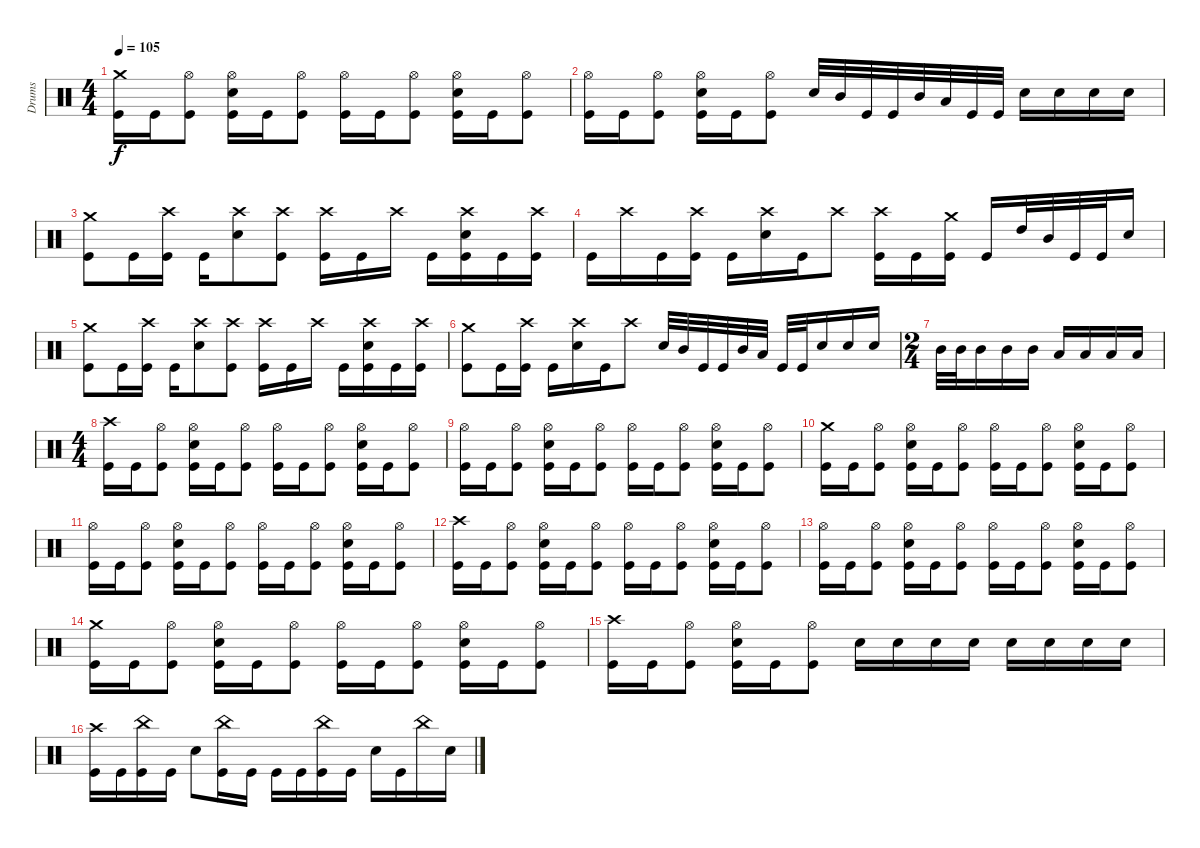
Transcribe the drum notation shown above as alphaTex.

\track ("Drums" "Drums") {instrument percussion}
\staff {score}
\articulation defaults
\ts (4 4)
\tempo 105
\clef neutral
\ks c
("Crash medium (hit)" "Kick (hit)").16{dy f} "Kick (hit)".16 ("Hi-Hat (open)" "Kick (hit)").8 ("Hi-Hat (open)" "Electric Snare (hit)" "Kick (hit)").16 "Kick (hit)".16 ("Hi-Hat (open)" "Kick (hit)").8 ("Hi-Hat (open)" "Kick (hit)").16 "Kick (hit)".16 ("Hi-Hat (open)" "Kick (hit)").8 ("Hi-Hat (open)" "Electric Snare (hit)" "Kick (hit)").16 "Kick (hit)".16 ("Hi-Hat (open)" "Kick (hit)").8 |
("Hi-Hat (open)" "Kick (hit)").16 "Kick (hit)".16 ("Hi-Hat (open)" "Kick (hit)").8 ("Hi-Hat (open)" "Electric Snare (hit)" "Kick (hit)").16 "Kick (hit)".16 ("Hi-Hat (open)" "Kick (hit)").8 "Electric Snare (hit)".32 "Mid Tom (hit)".32 "Kick (hit)".32 "Kick (hit)".32 "Mid Tom (hit)".32 "Low Tom (hit)".32 "Kick (hit)".32 "Kick (hit)".32 "Electric Snare (hit)".16 "Electric Snare (hit)".16 "Electric Snare (hit)".16 "Electric Snare (hit)".16 |
("Crash medium (hit)" "Kick (hit)").8 "Kick (hit)".16 ("Crash high (hit)" "Kick (hit)").16 "Kick (hit)".16 ("Crash high (hit)" "Electric Snare (hit)").8 ("Crash high (hit)" "Kick (hit)").8 ("Crash high (hit)" "Kick (hit)").16 "Kick (hit)".16 "Crash high (hit)".16 "Kick (hit)".16 ("Crash high (hit)" "Electric Snare (hit)" "Kick (hit)").16 "Kick (hit)".16 ("Crash high (hit)" "Kick (hit)").16 |
"Kick (hit)".16 "Crash high (hit)".16 "Kick (hit)".16 ("Crash high (hit)" "Kick (hit)").16 "Kick (hit)".16 ("Crash high (hit)" "Electric Snare (hit)").16 "Kick (hit)".16 "Crash high (hit)".8 ("Crash high (hit)" "Kick (hit)").16 "Kick (hit)".16 ("Crash medium (hit)" "Kick (hit)").16 "Kick (hit)".16 "High Tom (hit)".32 "Mid Tom (hit)".32 "Kick (hit)".32 "Kick (hit)".32 "Electric Snare (hit)".16 |
("Crash medium (hit)" "Kick (hit)").8 "Kick (hit)".16 ("Crash high (hit)" "Kick (hit)").16 "Kick (hit)".16 ("Crash high (hit)" "Electric Snare (hit)").8 ("Crash high (hit)" "Kick (hit)").8 ("Crash high (hit)" "Kick (hit)").16 "Kick (hit)".16 "Crash high (hit)".16 "Kick (hit)".16 ("Crash high (hit)" "Electric Snare (hit)" "Kick (hit)").16 "Kick (hit)".16 ("Crash high (hit)" "Kick (hit)").16 |
("Crash medium (hit)" "Kick (hit)").8 "Kick (hit)".16 ("Crash high (hit)" "Kick (hit)").16 "Kick (hit)".16 ("Crash high (hit)" "Electric Snare (hit)").16 "Kick (hit)".16 "Crash high (hit)".8 "Electric Snare (hit)".32 "Mid Tom (hit)".32 "Kick (hit)".32 "Kick (hit)".32 "Mid Tom (hit)".32 "Low Tom (hit)".32 "Kick (hit)".32 "Kick (hit)".32 "Electric Snare (hit)".16 "Electric Snare (hit)".16 "Electric Snare (hit)".16 |
\ts (2 4)
"Mid Tom (hit)".32 "Mid Tom (hit)".32 "Mid Tom (hit)".16 "Mid Tom (hit)".16 "Mid Tom (hit)".16 "Low Tom (hit)".16 "Low Tom (hit)".16 "Low Tom (hit)".16 "Low Tom (hit)".16 |
\ts (4 4)
("Crash high (hit)" "Kick (hit)").16 "Kick (hit)".16 ("Hi-Hat (open)" "Kick (hit)").8 ("Hi-Hat (open)" "Electric Snare (hit)" "Kick (hit)").16 "Kick (hit)".16 ("Hi-Hat (open)" "Kick (hit)").8 ("Hi-Hat (open)" "Kick (hit)").16 "Kick (hit)".16 ("Hi-Hat (open)" "Kick (hit)").8 ("Hi-Hat (open)" "Electric Snare (hit)" "Kick (hit)").16 "Kick (hit)".16 ("Hi-Hat (open)" "Kick (hit)").8 |
("Hi-Hat (open)" "Kick (hit)").16 "Kick (hit)".16 ("Hi-Hat (open)" "Kick (hit)").8 ("Hi-Hat (open)" "Electric Snare (hit)" "Kick (hit)").16 "Kick (hit)".16 ("Hi-Hat (open)" "Kick (hit)").8 ("Hi-Hat (open)" "Kick (hit)").16 "Kick (hit)".16 ("Hi-Hat (open)" "Kick (hit)").8 ("Hi-Hat (open)" "Electric Snare (hit)" "Kick (hit)").16 "Kick (hit)".16 ("Hi-Hat (open)" "Kick (hit)").8 |
("Crash medium (hit)" "Kick (hit)").16 "Kick (hit)".16 ("Hi-Hat (open)" "Kick (hit)").8 ("Hi-Hat (open)" "Electric Snare (hit)" "Kick (hit)").16 "Kick (hit)".16 ("Hi-Hat (open)" "Kick (hit)").8 ("Hi-Hat (open)" "Kick (hit)").16 "Kick (hit)".16 ("Hi-Hat (open)" "Kick (hit)").8 ("Hi-Hat (open)" "Electric Snare (hit)" "Kick (hit)").16 "Kick (hit)".16 ("Hi-Hat (open)" "Kick (hit)").8 |
("Hi-Hat (open)" "Kick (hit)").16 "Kick (hit)".16 ("Hi-Hat (open)" "Kick (hit)").8 ("Hi-Hat (open)" "Electric Snare (hit)" "Kick (hit)").16 "Kick (hit)".16 ("Hi-Hat (open)" "Kick (hit)").8 ("Hi-Hat (open)" "Kick (hit)").16 "Kick (hit)".16 ("Hi-Hat (open)" "Kick (hit)").8 ("Hi-Hat (open)" "Electric Snare (hit)" "Kick (hit)").16 "Kick (hit)".16 ("Hi-Hat (open)" "Kick (hit)").8 |
("Crash high (hit)" "Kick (hit)").16 "Kick (hit)".16 ("Hi-Hat (open)" "Kick (hit)").8 ("Hi-Hat (open)" "Electric Snare (hit)" "Kick (hit)").16 "Kick (hit)".16 ("Hi-Hat (open)" "Kick (hit)").8 ("Hi-Hat (open)" "Kick (hit)").16 "Kick (hit)".16 ("Hi-Hat (open)" "Kick (hit)").8 ("Hi-Hat (open)" "Electric Snare (hit)" "Kick (hit)").16 "Kick (hit)".16 ("Hi-Hat (open)" "Kick (hit)").8 |
("Hi-Hat (open)" "Kick (hit)").16 "Kick (hit)".16 ("Hi-Hat (open)" "Kick (hit)").8 ("Hi-Hat (open)" "Electric Snare (hit)" "Kick (hit)").16 "Kick (hit)".16 ("Hi-Hat (open)" "Kick (hit)").8 ("Hi-Hat (open)" "Kick (hit)").16 "Kick (hit)".16 ("Hi-Hat (open)" "Kick (hit)").8 ("Hi-Hat (open)" "Electric Snare (hit)" "Kick (hit)").16 "Kick (hit)".16 ("Hi-Hat (open)" "Kick (hit)").8 |
("Crash medium (hit)" "Kick (hit)").16 "Kick (hit)".16 ("Hi-Hat (open)" "Kick (hit)").8 ("Hi-Hat (open)" "Electric Snare (hit)" "Kick (hit)").16 "Kick (hit)".16 ("Hi-Hat (open)" "Kick (hit)").8 ("Hi-Hat (open)" "Kick (hit)").16 "Kick (hit)".16 ("Hi-Hat (open)" "Kick (hit)").8 ("Hi-Hat (open)" "Electric Snare (hit)" "Kick (hit)").16 "Kick (hit)".16 ("Hi-Hat (open)" "Kick (hit)").8 |
("Crash high (hit)" "Kick (hit)").16 "Kick (hit)".16 ("Hi-Hat (open)" "Kick (hit)").8 ("Hi-Hat (open)" "Electric Snare (hit)" "Kick (hit)").16 "Kick (hit)".16 ("Hi-Hat (open)" "Kick (hit)").8 "Electric Snare (hit)".16 "Electric Snare (hit)".16 "Electric Snare (hit)".16 "Electric Snare (hit)".16 "Electric Snare (hit)".16 "Electric Snare (hit)".16 "Electric Snare (hit)".16 "Electric Snare (hit)".16 |
("Crash high (hit)" "Kick (hit)").16 "Kick (hit)".16 ("China (hit)" "Kick (hit)").16 "Kick (hit)".16 "Electric Snare (hit)".8 ("China (hit)" "Kick (hit)").16 "Kick (hit)".16 "Kick (hit)".16 "Kick (hit)".16 ("China (hit)" "Kick (hit)").16 "Kick (hit)".16 "Electric Snare (hit)".16 "Kick (hit)".16 "China (hit)".16 "Electric Snare (hit)".16
